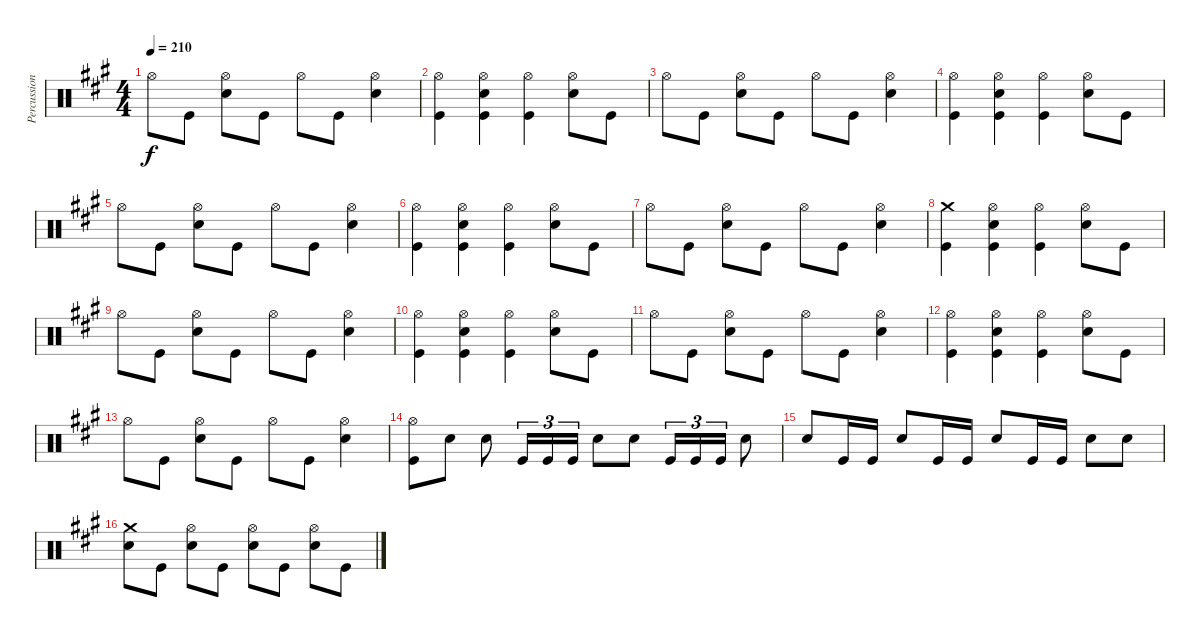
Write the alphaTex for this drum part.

\track ("Percussion" "Percussion") {instrument percussion}
\staff {score}
\articulation defaults
\ts (4 4)
\tempo 210
\clef neutral
\ks a "Hi-Hat (open)".8{dy f} "Kick (hit)".8
("Hi-Hat (open)" "Snare (hit) 2").8 "Kick (hit)".8 "Hi-Hat (open)".8 "Kick (hit)".8 ("Hi-Hat (open)" "Snare (hit) 2").4 |
("Hi-Hat (open)" "Kick (hit)").4 ("Hi-Hat (open)" "Snare (hit) 2" "Kick (hit)").4 ("Hi-Hat (open)" "Kick (hit)").4 ("Hi-Hat (open)" "Snare (hit) 2").8 "Kick (hit)".8 |
"Hi-Hat (open)".8 "Kick (hit)".8 ("Hi-Hat (open)" "Snare (hit) 2").8 "Kick (hit)".8 "Hi-Hat (open)".8 "Kick (hit)".8 ("Hi-Hat (open)" "Snare (hit) 2").4 |
("Hi-Hat (open)" "Kick (hit)").4 ("Hi-Hat (open)" "Snare (hit) 2" "Kick (hit)").4 ("Hi-Hat (open)" "Kick (hit)").4 ("Hi-Hat (open)" "Snare (hit) 2").8 "Kick (hit)".8 |
"Hi-Hat (open)".8 "Kick (hit)".8 ("Hi-Hat (open)" "Snare (hit) 2").8 "Kick (hit)".8 "Hi-Hat (open)".8 "Kick (hit)".8 ("Hi-Hat (open)" "Snare (hit) 2").4 |
("Hi-Hat (open)" "Kick (hit)").4 ("Hi-Hat (open)" "Snare (hit) 2" "Kick (hit)").4 ("Hi-Hat (open)" "Kick (hit)").4 ("Hi-Hat (open)" "Snare (hit) 2").8 "Kick (hit)".8 |
"Hi-Hat (open)".8 "Kick (hit)".8 ("Hi-Hat (open)" "Snare (hit) 2").8 "Kick (hit)".8 "Hi-Hat (open)".8 "Kick (hit)".8 ("Hi-Hat (open)" "Snare (hit) 2").4 |
("Crash medium (hit)" "Kick (hit)").4 ("Hi-Hat (open)" "Snare (hit) 2" "Kick (hit)").4 ("Hi-Hat (open)" "Kick (hit)").4 ("Hi-Hat (open)" "Snare (hit) 2").8 "Kick (hit)".8 |
"Hi-Hat (open)".8 "Kick (hit)".8 ("Hi-Hat (open)" "Snare (hit) 2").8 "Kick (hit)".8 "Hi-Hat (open)".8 "Kick (hit)".8 ("Hi-Hat (open)" "Snare (hit) 2").4 |
("Hi-Hat (open)" "Kick (hit)").4 ("Hi-Hat (open)" "Snare (hit) 2" "Kick (hit)").4 ("Hi-Hat (open)" "Kick (hit)").4 ("Hi-Hat (open)" "Snare (hit) 2").8 "Kick (hit)".8 |
"Hi-Hat (open)".8 "Kick (hit)".8 ("Hi-Hat (open)" "Snare (hit) 2").8 "Kick (hit)".8 "Hi-Hat (open)".8 "Kick (hit)".8 ("Hi-Hat (open)" "Snare (hit) 2").4 |
("Hi-Hat (open)" "Kick (hit)").4 ("Hi-Hat (open)" "Snare (hit) 2" "Kick (hit)").4 ("Hi-Hat (open)" "Kick (hit)").4 ("Hi-Hat (open)" "Snare (hit) 2").8 "Kick (hit)".8 |
"Hi-Hat (open)".8 "Kick (hit)".8 ("Hi-Hat (open)" "Snare (hit) 2").8 "Kick (hit)".8 "Hi-Hat (open)".8 "Kick (hit)".8 ("Hi-Hat (open)" "Snare (hit) 2").4 |
("Hi-Hat (open)" "Kick (hit)").8 "Snare (hit) 2".8 "Snare (hit) 2".8 "Kick (hit)".16{tu (3 2)} "Kick (hit)".16{tu (3 2)} "Kick (hit)".16{tu (3 2)} "Snare (hit) 2".8 "Snare (hit) 2".8 "Kick (hit)".16{tu (3 2)} "Kick (hit)".16{tu (3 2)} "Kick (hit)".16{tu (3 2)} "Snare (hit) 2".8 |
"Snare (hit) 2".8 "Kick (hit)".16 "Kick (hit)".16 "Snare (hit) 2".8 "Kick (hit)".16 "Kick (hit)".16 "Snare (hit) 2".8 "Kick (hit)".16 "Kick (hit)".16 "Snare (hit) 2".8 "Snare (hit) 2".8 |
("Crash medium (hit)" "Snare (hit) 2").8 "Kick (hit)".8 ("Hi-Hat (open)" "Snare (hit) 2").8 "Kick (hit)".8 ("Hi-Hat (open)" "Snare (hit) 2").8 "Kick (hit)".8 ("Hi-Hat (open)" "Snare (hit) 2").8 "Kick (hit)".8
